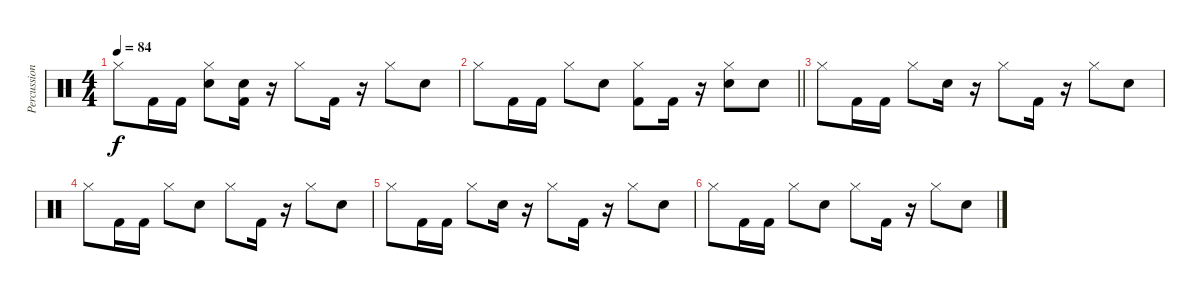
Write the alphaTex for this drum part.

\track ("Percussions" "Percussion") {instrument percussion}
\staff {score}
\articulation defaults
\ts (4 4)
\tempo 84
\clef neutral
\ks c "Hi-Hat (closed)".8{dy f} "Kick (hit) 2".16 "Kick (hit) 2".16
("Hi-Hat (closed)" "Snare (hit) 2").8 ("Snare (hit) 2" "Kick (hit) 2").16 r.16 "Hi-Hat (closed)".8 "Kick (hit) 2".16 r.16 "Hi-Hat (closed)".8 "Snare (hit) 2".8 |
\barLineRight lightlight "Hi-Hat (closed)".8 "Kick (hit) 2".16 "Kick (hit) 2".16 "Hi-Hat (closed)".8 "Snare (hit) 2".8
("Hi-Hat (closed)" "Kick (hit) 2").8 "Kick (hit) 2".16 r.16 ("Hi-Hat (closed)" "Snare (hit) 2").8 "Snare (hit) 2".8 |
"Hi-Hat (closed)".8 "Kick (hit) 2".16 "Kick (hit) 2".16 "Hi-Hat (closed)".8 "Snare (hit) 2".16 r.16 "Hi-Hat (closed)".8 "Kick (hit) 2".16 r.16 "Hi-Hat (closed)".8 "Snare (hit) 2".8 |
"Hi-Hat (closed)".8 "Kick (hit) 2".16 "Kick (hit) 2".16 "Hi-Hat (closed)".8 "Snare (hit) 2".8 "Hi-Hat (closed)".8 "Kick (hit) 2".16 r.16 "Hi-Hat (closed)".8 "Snare (hit) 2".8 |
"Hi-Hat (closed)".8 "Kick (hit) 2".16 "Kick (hit) 2".16 "Hi-Hat (closed)".8 "Snare (hit) 2".16 r.16 "Hi-Hat (closed)".8 "Kick (hit) 2".16 r.16 "Hi-Hat (closed)".8 "Snare (hit) 2".8 |
"Hi-Hat (closed)".8 "Kick (hit) 2".16 "Kick (hit) 2".16 "Hi-Hat (closed)".8 "Snare (hit) 2".8 "Hi-Hat (closed)".8 "Kick (hit) 2".16 r.16 "Hi-Hat (closed)".8 "Snare (hit) 2".8
